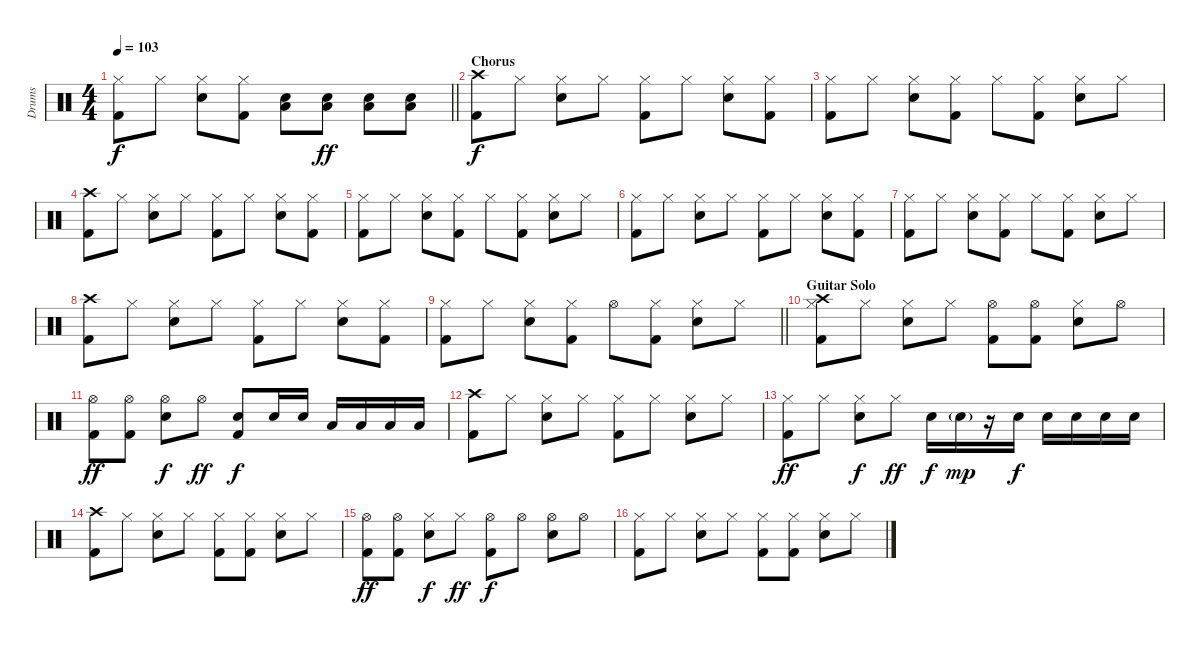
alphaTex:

\track ("Drums" "Drums") {instrument percussion}
\staff {score}
\articulation defaults
\ts (4 4)
\tempo 103
\clef neutral
\barLineRight lightlight
\ks c
("Hi-Hat (closed)" "Kick (hit) 2").8{dy f} "Hi-Hat (closed)".8 ("Hi-Hat (closed)" "Snare (hit) 2").8 ("Hi-Hat (closed)" "Kick (hit) 2").8 ("Snare (hit) 2" "Low Floor Tom (hit)").8 ("Snare (hit) 2" "Low Floor Tom (hit)").8{dy ff} ("Snare (hit) 2" "Low Floor Tom (hit)").8 ("Snare (hit) 2" "Low Floor Tom (hit)").8 |
\section ("" "Chorus")
("Crash high (hit)" "Kick (hit) 2").8{dy f} "Hi-Hat (closed)".8 ("Hi-Hat (closed)" "Snare (hit) 2").8 "Hi-Hat (closed)".8 ("Hi-Hat (closed)" "Kick (hit) 2").8 "Hi-Hat (closed)".8 ("Hi-Hat (closed)" "Snare (hit) 2").8 ("Hi-Hat (closed)" "Kick (hit) 2").8 |
("Hi-Hat (closed)" "Kick (hit) 2").8 "Hi-Hat (closed)".8 ("Hi-Hat (closed)" "Snare (hit) 2").8 ("Hi-Hat (closed)" "Kick (hit) 2").8 "Hi-Hat (closed)".8 ("Hi-Hat (closed)" "Kick (hit) 2").8 ("Hi-Hat (closed)" "Snare (hit) 2").8 "Hi-Hat (closed)".8 |
("Crash high (hit)" "Kick (hit) 2").8 "Hi-Hat (closed)".8 ("Hi-Hat (closed)" "Snare (hit) 2").8 "Hi-Hat (closed)".8 ("Hi-Hat (closed)" "Kick (hit) 2").8 "Hi-Hat (closed)".8 ("Hi-Hat (closed)" "Snare (hit) 2").8 ("Hi-Hat (closed)" "Kick (hit) 2").8 |
("Hi-Hat (closed)" "Kick (hit) 2").8 "Hi-Hat (closed)".8 ("Hi-Hat (closed)" "Snare (hit) 2").8 ("Hi-Hat (closed)" "Kick (hit) 2").8 "Hi-Hat (closed)".8 ("Hi-Hat (closed)" "Kick (hit) 2").8 ("Hi-Hat (closed)" "Snare (hit) 2").8 "Hi-Hat (closed)".8 |
("Hi-Hat (closed)" "Kick (hit) 2").8 "Hi-Hat (closed)".8 ("Hi-Hat (closed)" "Snare (hit) 2").8 "Hi-Hat (closed)".8 ("Hi-Hat (closed)" "Kick (hit) 2").8 "Hi-Hat (closed)".8 ("Hi-Hat (closed)" "Snare (hit) 2").8 ("Hi-Hat (closed)" "Kick (hit) 2").8 |
("Hi-Hat (closed)" "Kick (hit) 2").8 "Hi-Hat (closed)".8 ("Hi-Hat (closed)" "Snare (hit) 2").8 ("Hi-Hat (closed)" "Kick (hit) 2").8 "Hi-Hat (closed)".8 ("Hi-Hat (closed)" "Kick (hit) 2").8 ("Hi-Hat (closed)" "Snare (hit) 2").8 "Hi-Hat (closed)".8 |
("Crash high (hit)" "Kick (hit) 2").8 "Hi-Hat (closed)".8 ("Hi-Hat (closed)" "Snare (hit) 2").8 "Hi-Hat (closed)".8 ("Hi-Hat (closed)" "Kick (hit) 2").8 "Hi-Hat (closed)".8 ("Hi-Hat (closed)" "Snare (hit) 2").8 ("Hi-Hat (closed)" "Kick (hit) 2").8 |
\barLineRight lightlight
("Hi-Hat (closed)" "Kick (hit) 2").8 "Hi-Hat (closed)".8 ("Hi-Hat (closed)" "Snare (hit) 2").8 ("Hi-Hat (closed)" "Kick (hit) 2").8 "Hi-Hat (open)".8 ("Hi-Hat (closed)" "Kick (hit) 2").8 ("Hi-Hat (closed)" "Snare (hit) 2").8 "Hi-Hat (closed)".8 |
\section ("" "Guitar Solo")
("Hi-Hat (closed)" "Crash high (hit)" "Kick (hit) 2").8 "Hi-Hat (closed)".8 ("Hi-Hat (closed)" "Snare (hit) 2").8 "Hi-Hat (closed)".8 ("Hi-Hat (open)" "Kick (hit) 2").8 ("Hi-Hat (open)" "Kick (hit) 2").8 ("Hi-Hat (closed)" "Snare (hit) 2").8 "Hi-Hat (open)".8 |
("Hi-Hat (open)" "Kick (hit) 2").8{dy ff} ("Hi-Hat (open)" "Kick (hit) 2").8 ("Hi-Hat (open)" "Snare (hit) 2").8{dy f} "Hi-Hat (open)".8{dy ff} ("Snare (hit) 2" "Kick (hit) 2").8{dy f} "Snare (hit) 2".16 "Snare (hit) 2".16 "Low Tom (hit)".16 "Low Tom (hit)".16 "Low Tom (hit)".16 "Low Tom (hit)".16 |
("Crash high (hit)" "Kick (hit) 2").8 "Hi-Hat (closed)".8 ("Hi-Hat (closed)" "Snare (hit) 2").8 "Hi-Hat (closed)".8 ("Hi-Hat (closed)" "Kick (hit) 2").8 "Hi-Hat (closed)".8 ("Hi-Hat (closed)" "Snare (hit) 2").8 "Hi-Hat (closed)".8 |
("Hi-Hat (closed)" "Kick (hit) 2").8{dy ff} "Hi-Hat (closed)".8 ("Hi-Hat (closed)" "Snare (hit) 2").8{dy f} "Hi-Hat (closed)".8{dy ff} "Snare (hit) 2".16{dy f} "Snare (hit) 2"{g}.16{dy mp} r.16 "Snare (hit) 2".16{dy f} "Snare (hit) 2".16 "Snare (hit) 2".16 "Snare (hit) 2".16 "Snare (hit) 2".16 |
("Crash high (hit)" "Kick (hit) 2").8 "Hi-Hat (closed)".8 ("Hi-Hat (closed)" "Snare (hit) 2").8 "Hi-Hat (closed)".8 ("Hi-Hat (closed)" "Kick (hit) 2").8 ("Hi-Hat (closed)" "Kick (hit) 2").8 ("Hi-Hat (closed)" "Snare (hit) 2").8 "Hi-Hat (closed)".8 |
("Hi-Hat (open)" "Kick (hit) 2").8{dy ff} ("Hi-Hat (open)" "Kick (hit) 2").8 ("Hi-Hat (closed)" "Snare (hit) 2").8{dy f} "Hi-Hat (closed)".8{dy ff} ("Hi-Hat (open)" "Kick (hit) 2").8{dy f} "Hi-Hat (open)".8 ("Hi-Hat (open)" "Snare (hit) 2").8 "Hi-Hat (open)".8 |
("Hi-Hat (closed)" "Kick (hit) 2").8 "Hi-Hat (closed)".8 ("Hi-Hat (closed)" "Snare (hit) 2").8 "Hi-Hat (closed)".8 ("Hi-Hat (closed)" "Kick (hit) 2").8 ("Hi-Hat (closed)" "Kick (hit) 2").8 ("Hi-Hat (closed)" "Snare (hit) 2").8 "Hi-Hat (closed)".8
